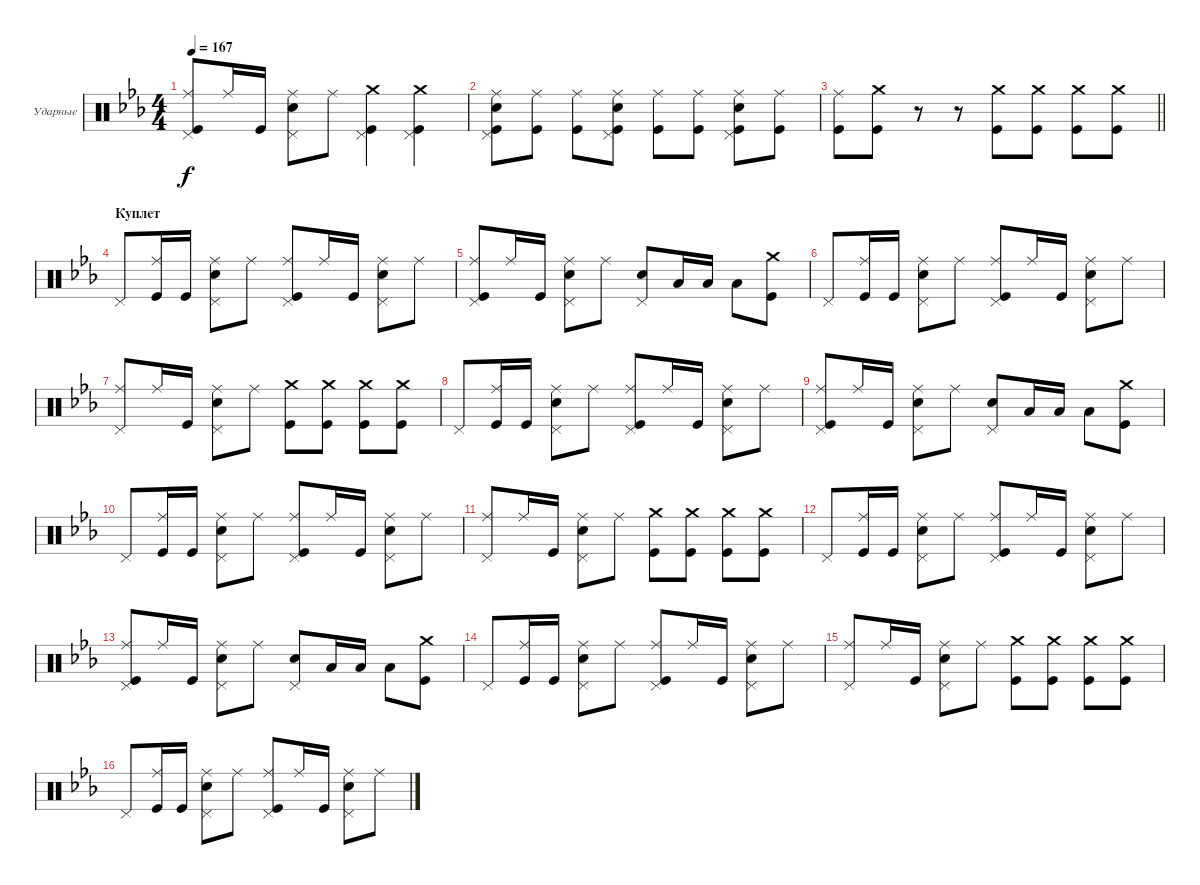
\bracketExtendMode groupsimilarinstruments
\firstSystemTrackNameOrientation horizontal
\otherSystemsTrackNameOrientation horizontal
\track ("Максим Удалов" "Ударные") {instrument percussion}
\staff {score}
\articulation defaults
\ts (4 4)
\tempo 167
\clef neutral
\ks cminor
("Kick (hit)" "Ride (middle)" "Pedal Hi-Hat (hit)").8{dy f} "Ride (middle)".16 "Kick (hit)".16 ("Snare (hit) 2" "Ride (middle)" "Pedal Hi-Hat (hit)").8 "Ride (middle)".8 ("Kick (hit)" "Crash medium (hit)" "Pedal Hi-Hat (hit)").4 ("Crash medium (hit)" "Kick (hit)" "Pedal Hi-Hat (hit)").4 |
("Ride (middle)" "Snare (hit) 2" "Kick (hit)" "Pedal Hi-Hat (hit)").8 ("Kick (hit)" "Ride (middle)").8 ("Ride (middle)" "Kick (hit)").8 ("Ride (middle)" "Snare (hit) 2" "Kick (hit)" "Pedal Hi-Hat (hit)").8 ("Ride (middle)" "Kick (hit)").8 ("Ride (middle)" "Kick (hit)").8 ("Ride (middle)" "Kick (hit)" "Snare (hit) 2" "Pedal Hi-Hat (hit)").8 ("Ride (middle)" "Kick (hit)").8 |
\barLineRight lightlight
("Ride (middle)" "Kick (hit)").8 ("Crash medium (hit)" "Kick (hit)").8 r.8 r.8 ("Kick (hit)" "Crash medium (hit)").8 ("Kick (hit)" "Crash medium (hit)").8 ("Kick (hit)" "Crash medium (hit)").8 ("Kick (hit)" "Crash medium (hit)").8 |
\section ("" "Куплет")
"Pedal Hi-Hat (hit)".8 ("Ride (middle)" "Kick (hit)").16 "Kick (hit)".16 ("Ride (middle)" "Snare (hit) 2" "Pedal Hi-Hat (hit)").8 "Ride (middle)".8 ("Ride (middle)" "Kick (hit)" "Pedal Hi-Hat (hit)").8 "Ride (middle)".16 "Kick (hit)".16 ("Ride (middle)" "Snare (hit) 2" "Pedal Hi-Hat (hit)").8 "Ride (middle)".8 |
("Ride (middle)" "Kick (hit)" "Pedal Hi-Hat (hit)").8 "Ride (middle)".16 "Kick (hit)".16 ("Ride (middle)" "Snare (hit) 2" "Pedal Hi-Hat (hit)").8 "Ride (middle)".8 ("Pedal Hi-Hat (hit)" "Snare (hit) 2").8 "Low Tom (hit)".16 "Low Tom (hit)".16 "Low Tom (hit)".8 ("Crash medium (hit)" "Kick (hit)").8 |
"Pedal Hi-Hat (hit)".8 ("Ride (middle)" "Kick (hit)").16 "Kick (hit)".16 ("Ride (middle)" "Snare (hit) 2" "Pedal Hi-Hat (hit)").8 "Ride (middle)".8 ("Ride (middle)" "Kick (hit)" "Pedal Hi-Hat (hit)").8 "Ride (middle)".16 "Kick (hit)".16 ("Ride (middle)" "Snare (hit) 2" "Pedal Hi-Hat (hit)").8 "Ride (middle)".8 |
("Pedal Hi-Hat (hit)" "Ride (middle)").8 "Ride (middle)".16 "Kick (hit)".16 ("Ride (middle)" "Snare (hit) 2" "Pedal Hi-Hat (hit)").8 "Ride (middle)".8 ("Kick (hit)" "Crash medium (hit)").8 ("Crash medium (hit)" "Kick (hit)").8 ("Crash medium (hit)" "Kick (hit)").8 ("Crash medium (hit)" "Kick (hit)").8 |
"Pedal Hi-Hat (hit)".8 ("Ride (middle)" "Kick (hit)").16 "Kick (hit)".16 ("Ride (middle)" "Snare (hit) 2" "Pedal Hi-Hat (hit)").8 "Ride (middle)".8 ("Ride (middle)" "Kick (hit)" "Pedal Hi-Hat (hit)").8 "Ride (middle)".16 "Kick (hit)".16 ("Ride (middle)" "Snare (hit) 2" "Pedal Hi-Hat (hit)").8 "Ride (middle)".8 |
("Ride (middle)" "Kick (hit)" "Pedal Hi-Hat (hit)").8 "Ride (middle)".16 "Kick (hit)".16 ("Ride (middle)" "Snare (hit) 2" "Pedal Hi-Hat (hit)").8 "Ride (middle)".8 ("Pedal Hi-Hat (hit)" "Snare (hit) 2").8 "Low Tom (hit)".16 "Low Tom (hit)".16 "Low Tom (hit)".8 ("Crash medium (hit)" "Kick (hit)").8 |
"Pedal Hi-Hat (hit)".8 ("Ride (middle)" "Kick (hit)").16 "Kick (hit)".16 ("Ride (middle)" "Snare (hit) 2" "Pedal Hi-Hat (hit)").8 "Ride (middle)".8 ("Ride (middle)" "Kick (hit)" "Pedal Hi-Hat (hit)").8 "Ride (middle)".16 "Kick (hit)".16 ("Ride (middle)" "Snare (hit) 2" "Pedal Hi-Hat (hit)").8 "Ride (middle)".8 |
("Pedal Hi-Hat (hit)" "Ride (middle)").8 "Ride (middle)".16 "Kick (hit)".16 ("Ride (middle)" "Snare (hit) 2" "Pedal Hi-Hat (hit)").8 "Ride (middle)".8 ("Kick (hit)" "Crash medium (hit)").8 ("Crash medium (hit)" "Kick (hit)").8 ("Crash medium (hit)" "Kick (hit)").8 ("Crash medium (hit)" "Kick (hit)").8 |
"Pedal Hi-Hat (hit)".8 ("Ride (middle)" "Kick (hit)").16 "Kick (hit)".16 ("Ride (middle)" "Snare (hit) 2" "Pedal Hi-Hat (hit)").8 "Ride (middle)".8 ("Ride (middle)" "Kick (hit)" "Pedal Hi-Hat (hit)").8 "Ride (middle)".16 "Kick (hit)".16 ("Ride (middle)" "Snare (hit) 2" "Pedal Hi-Hat (hit)").8 "Ride (middle)".8 |
("Ride (middle)" "Kick (hit)" "Pedal Hi-Hat (hit)").8 "Ride (middle)".16 "Kick (hit)".16 ("Ride (middle)" "Snare (hit) 2" "Pedal Hi-Hat (hit)").8 "Ride (middle)".8 ("Pedal Hi-Hat (hit)" "Snare (hit) 2").8 "Low Tom (hit)".16 "Low Tom (hit)".16 "Low Tom (hit)".8 ("Crash medium (hit)" "Kick (hit)").8 |
"Pedal Hi-Hat (hit)".8 ("Ride (middle)" "Kick (hit)").16 "Kick (hit)".16 ("Ride (middle)" "Snare (hit) 2" "Pedal Hi-Hat (hit)").8 "Ride (middle)".8 ("Ride (middle)" "Kick (hit)" "Pedal Hi-Hat (hit)").8 "Ride (middle)".16 "Kick (hit)".16 ("Ride (middle)" "Snare (hit) 2" "Pedal Hi-Hat (hit)").8 "Ride (middle)".8 |
("Pedal Hi-Hat (hit)" "Ride (middle)").8 "Ride (middle)".16 "Kick (hit)".16 ("Ride (middle)" "Snare (hit) 2" "Pedal Hi-Hat (hit)").8 "Ride (middle)".8 ("Kick (hit)" "Crash medium (hit)").8 ("Crash medium (hit)" "Kick (hit)").8 ("Crash medium (hit)" "Kick (hit)").8 ("Crash medium (hit)" "Kick (hit)").8 |
"Pedal Hi-Hat (hit)".8 ("Ride (middle)" "Kick (hit)").16 "Kick (hit)".16 ("Ride (middle)" "Snare (hit) 2" "Pedal Hi-Hat (hit)").8 "Ride (middle)".8 ("Ride (middle)" "Kick (hit)" "Pedal Hi-Hat (hit)").8 "Ride (middle)".16 "Kick (hit)".16 ("Ride (middle)" "Snare (hit) 2" "Pedal Hi-Hat (hit)").8 "Ride (middle)".8
